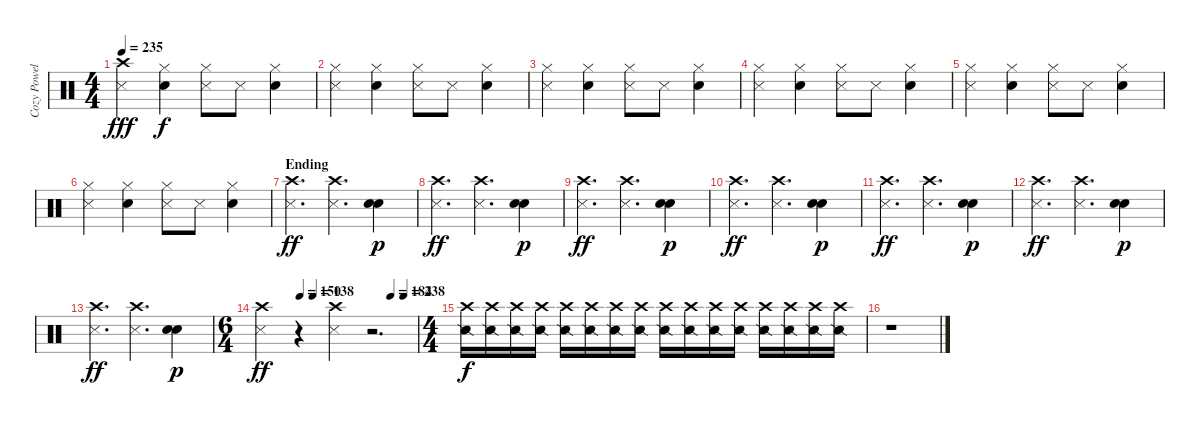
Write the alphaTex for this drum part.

\track ("Cozy Powell" "Cozy Powel") {instrument percussion}
\staff {score}
\articulation defaults
\ts (4 4)
\tempo 235
\clef neutral
\ks c
("Crash high (hit)" "Metronome (hit)").4{dy fff} ("Hi-Hat (closed)" "Electric Snare (hit)").4{dy f} ("Hi-Hat (closed)" "Metronome (hit)").8 "Metronome (hit)".8 ("Hi-Hat (closed)" "Electric Snare (hit)").4 |
("Hi-Hat (closed)" "Metronome (hit)").4 ("Electric Snare (hit)" "Hi-Hat (closed)").4 ("Metronome (hit)" "Hi-Hat (closed)").8 "Metronome (hit)".8 ("Electric Snare (hit)" "Hi-Hat (closed)").4 |
("Metronome (hit)" "Hi-Hat (closed)").4 ("Electric Snare (hit)" "Hi-Hat (closed)").4 ("Metronome (hit)" "Hi-Hat (closed)").8 "Metronome (hit)".8 ("Electric Snare (hit)" "Hi-Hat (closed)").4 |
("Metronome (hit)" "Hi-Hat (closed)").4 ("Electric Snare (hit)" "Hi-Hat (closed)").4 ("Metronome (hit)" "Hi-Hat (closed)").8 "Metronome (hit)".8 ("Electric Snare (hit)" "Hi-Hat (closed)").4 |
("Metronome (hit)" "Hi-Hat (closed)").4 ("Hi-Hat (closed)" "Electric Snare (hit)").4 ("Metronome (hit)" "Hi-Hat (closed)").8 "Metronome (hit)".8 ("Electric Snare (hit)" "Hi-Hat (closed)").4 |
("Metronome (hit)" "Hi-Hat (closed)").4 ("Electric Snare (hit)" "Hi-Hat (closed)").4 ("Metronome (hit)" "Hi-Hat (closed)").8 "Metronome (hit)".8 ("Electric Snare (hit)" "Hi-Hat (closed)").4 |
\section ("" "Ending")
("Crash high (hit)" "Metronome (hit)").4{d dy ff} ("Metronome (hit)" "Crash high (hit)").4{d} ("Electric Snare (hit)" "Electric Snare (hit)").4{dy p} |
("Crash high (hit)" "Metronome (hit)").4{d dy ff} ("Metronome (hit)" "Crash high (hit)").4{d} ("Electric Snare (hit)" "Electric Snare (hit)").4{dy p} |
("Crash high (hit)" "Metronome (hit)").4{d dy ff} ("Crash high (hit)" "Metronome (hit)").4{d} ("Electric Snare (hit)" "Electric Snare (hit)").4{dy p} |
("Crash high (hit)" "Metronome (hit)").4{d dy ff} ("Metronome (hit)" "Crash high (hit)").4{d} ("Electric Snare (hit)" "Electric Snare (hit)").4{dy p} |
("Crash high (hit)" "Metronome (hit)").4{d dy ff} ("Crash high (hit)" "Metronome (hit)").4{d} ("Electric Snare (hit)" "Electric Snare (hit)").4{dy p} |
("Crash high (hit)" "Metronome (hit)").4{d dy ff} ("Crash high (hit)" "Metronome (hit)").4{d} ("Electric Snare (hit)" "Electric Snare (hit)").4{dy p} |
("Metronome (hit)" "Crash high (hit)").4{d dy ff} ("Metronome (hit)" "Crash high (hit)").4{d} ("Electric Snare (hit)" "Electric Snare (hit)").4{dy p} |
\ts (6 4)
\tempo (150 0.25)
\tempo (138 0.3333333333333333)
\tempo (184 0.8333333333333334)
\tempo (238 0.9166666666666666)
("Metronome (hit)" "Crash high (hit)").4{dy ff} r.4 ("Metronome (hit)" "Crash high (hit)").4 r.2{d} |
\ts (4 4)
("Snare (side stick) 2" "Crash high (hit)").16{dy f} ("Snare (side stick) 2" "Crash high (hit)").16 ("Snare (side stick) 2" "Crash high (hit)").16 ("Snare (side stick) 2" "Crash high (hit)").16 ("Snare (side stick) 2" "Crash high (hit)").16 ("Snare (side stick) 2" "Crash high (hit)").16 ("Snare (side stick) 2" "Crash high (hit)").16 ("Snare (side stick) 2" "Crash high (hit)").16 ("Snare (side stick) 2" "Crash high (hit)").16 ("Snare (side stick) 2" "Crash high (hit)").16 ("Snare (side stick) 2" "Crash high (hit)").16 ("Snare (side stick) 2" "Crash high (hit)").16 ("Snare (side stick) 2" "Crash high (hit)").16 ("Snare (side stick) 2" "Crash high (hit)").16 ("Snare (side stick) 2" "Crash high (hit)").16 ("Snare (side stick) 2" "Crash high (hit)").16 |
r.1
